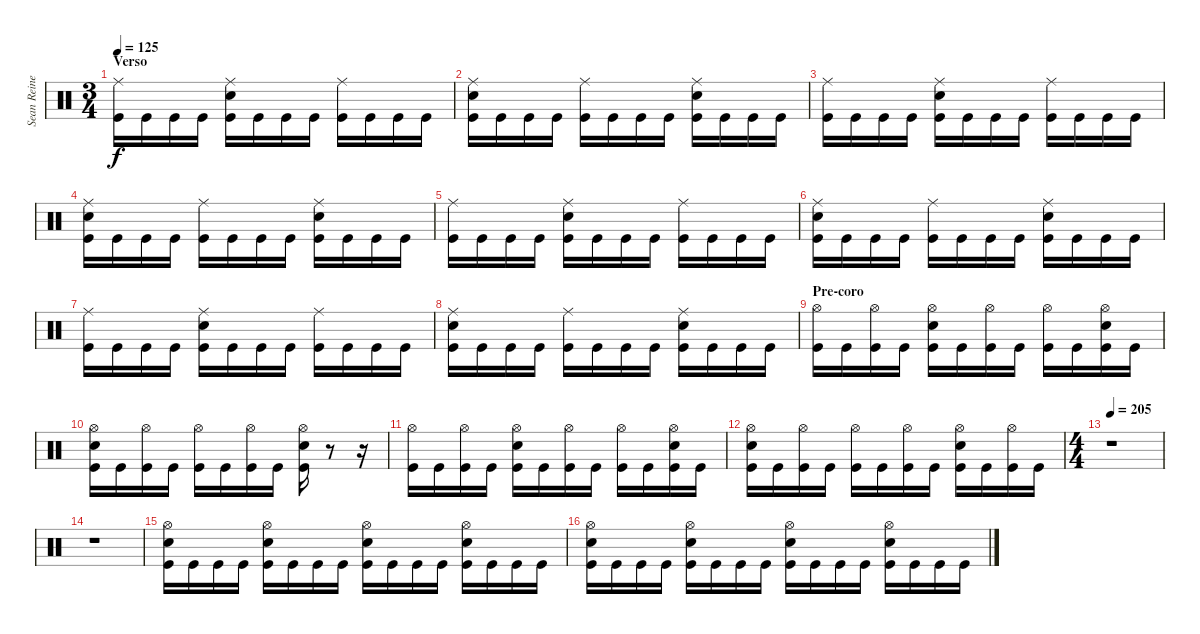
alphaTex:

\track ("Sean Reinert" "Sean Reine") {instrument percussion}
\staff {score}
\articulation defaults
\ts (3 4)
\section ("" "Verso")
\tempo 125
\clef neutral
\ks c
("Ride (middle)" "Kick (hit)").16{dy f} "Kick (hit)".16 "Kick (hit)".16 "Kick (hit)".16 ("Ride (middle)" "Snare (hit) 2" "Kick (hit)").16 "Kick (hit)".16 "Kick (hit)".16 "Kick (hit)".16 ("Ride (middle)" "Kick (hit)").16 "Kick (hit)".16 "Kick (hit)".16 "Kick (hit)".16 |
("Ride (middle)" "Snare (hit) 2" "Kick (hit)").16 "Kick (hit)".16 "Kick (hit)".16 "Kick (hit)".16 ("Ride (middle)" "Kick (hit)").16 "Kick (hit)".16 "Kick (hit)".16 "Kick (hit)".16 ("Ride (middle)" "Snare (hit) 2" "Kick (hit)").16 "Kick (hit)".16 "Kick (hit)".16 "Kick (hit)".16 |
("Ride (middle)" "Kick (hit)").16 "Kick (hit)".16 "Kick (hit)".16 "Kick (hit)".16 ("Ride (middle)" "Snare (hit) 2" "Kick (hit)").16 "Kick (hit)".16 "Kick (hit)".16 "Kick (hit)".16 ("Ride (middle)" "Kick (hit)").16 "Kick (hit)".16 "Kick (hit)".16 "Kick (hit)".16 |
("Ride (middle)" "Snare (hit) 2" "Kick (hit)").16 "Kick (hit)".16 "Kick (hit)".16 "Kick (hit)".16 ("Ride (middle)" "Kick (hit)").16 "Kick (hit)".16 "Kick (hit)".16 "Kick (hit)".16 ("Ride (middle)" "Snare (hit) 2" "Kick (hit)").16 "Kick (hit)".16 "Kick (hit)".16 "Kick (hit)".16 |
("Ride (middle)" "Kick (hit)").16 "Kick (hit)".16 "Kick (hit)".16 "Kick (hit)".16 ("Ride (middle)" "Snare (hit) 2" "Kick (hit)").16 "Kick (hit)".16 "Kick (hit)".16 "Kick (hit)".16 ("Ride (middle)" "Kick (hit)").16 "Kick (hit)".16 "Kick (hit)".16 "Kick (hit)".16 |
("Ride (middle)" "Snare (hit) 2" "Kick (hit)").16 "Kick (hit)".16 "Kick (hit)".16 "Kick (hit)".16 ("Ride (middle)" "Kick (hit)").16 "Kick (hit)".16 "Kick (hit)".16 "Kick (hit)".16 ("Ride (middle)" "Snare (hit) 2" "Kick (hit)").16 "Kick (hit)".16 "Kick (hit)".16 "Kick (hit)".16 |
("Ride (middle)" "Kick (hit)").16 "Kick (hit)".16 "Kick (hit)".16 "Kick (hit)".16 ("Ride (middle)" "Snare (hit) 2" "Kick (hit)").16 "Kick (hit)".16 "Kick (hit)".16 "Kick (hit)".16 ("Ride (middle)" "Kick (hit)").16 "Kick (hit)".16 "Kick (hit)".16 "Kick (hit)".16 |
("Ride (middle)" "Snare (hit) 2" "Kick (hit)").16 "Kick (hit)".16 "Kick (hit)".16 "Kick (hit)".16 ("Ride (middle)" "Kick (hit)").16 "Kick (hit)".16 "Kick (hit)".16 "Kick (hit)".16 ("Ride (middle)" "Snare (hit) 2" "Kick (hit)").16 "Kick (hit)".16 "Kick (hit)".16 "Kick (hit)".16 |
\section ("" "Pre-coro")
("Hi-Hat (open)" "Kick (hit)").16 "Kick (hit)".16 ("Hi-Hat (open)" "Kick (hit)").16 "Kick (hit)".16 ("Hi-Hat (open)" "Snare (hit) 2" "Kick (hit)").16 "Kick (hit)".16 ("Hi-Hat (open)" "Kick (hit)").16 "Kick (hit)".16 ("Hi-Hat (open)" "Kick (hit)").16 "Kick (hit)".16 ("Hi-Hat (open)" "Snare (hit) 2" "Kick (hit)").16 "Kick (hit)".16 |
("Hi-Hat (open)" "Snare (hit) 2" "Kick (hit)").16 "Kick (hit)".16 ("Hi-Hat (open)" "Kick (hit)").16 "Kick (hit)".16 ("Hi-Hat (open)" "Kick (hit)").16 "Kick (hit)".16 ("Hi-Hat (open)" "Kick (hit)").16 "Kick (hit)".16 ("Hi-Hat (open)" "Snare (hit) 2" "Kick (hit)").16 r.8 r.16 |
("Hi-Hat (open)" "Kick (hit)").16 "Kick (hit)".16 ("Hi-Hat (open)" "Kick (hit)").16 "Kick (hit)".16 ("Hi-Hat (open)" "Snare (hit) 2" "Kick (hit)").16 "Kick (hit)".16 ("Hi-Hat (open)" "Kick (hit)").16 "Kick (hit)".16 ("Hi-Hat (open)" "Kick (hit)").16 "Kick (hit)".16 ("Hi-Hat (open)" "Snare (hit) 2" "Kick (hit)").16 "Kick (hit)".16 |
("Hi-Hat (open)" "Snare (hit) 2" "Kick (hit)").16 "Kick (hit)".16 ("Hi-Hat (open)" "Kick (hit)").16 "Kick (hit)".16 ("Hi-Hat (open)" "Kick (hit)").16 "Kick (hit)".16 ("Hi-Hat (open)" "Kick (hit)").16 "Kick (hit)".16 ("Hi-Hat (open)" "Snare (hit) 2" "Kick (hit)").16 "Kick (hit)".16 ("Hi-Hat (open)" "Kick (hit)").16 "Kick (hit)".16 |
\ts (4 4)
\tempo 205
r.1 |
r.1 |
("Hi-Hat (open)" "Snare (hit) 2" "Kick (hit)").16 "Kick (hit)".16 "Kick (hit)".16 "Kick (hit)".16 ("Hi-Hat (open)" "Snare (hit) 2" "Kick (hit)").16 "Kick (hit)".16 "Kick (hit)".16 "Kick (hit)".16 ("Hi-Hat (open)" "Snare (hit) 2" "Kick (hit)").16 "Kick (hit)".16 "Kick (hit)".16 "Kick (hit)".16 ("Hi-Hat (open)" "Snare (hit) 2" "Kick (hit)").16 "Kick (hit)".16 "Kick (hit)".16 "Kick (hit)".16 |
("Hi-Hat (open)" "Snare (hit) 2" "Kick (hit)").16 "Kick (hit)".16 "Kick (hit)".16 "Kick (hit)".16 ("Hi-Hat (open)" "Snare (hit) 2" "Kick (hit)").16 "Kick (hit)".16 "Kick (hit)".16 "Kick (hit)".16 ("Hi-Hat (open)" "Snare (hit) 2" "Kick (hit)").16 "Kick (hit)".16 "Kick (hit)".16 "Kick (hit)".16 ("Hi-Hat (open)" "Snare (hit) 2" "Kick (hit)").16 "Kick (hit)".16 "Kick (hit)".16 "Kick (hit)".16
